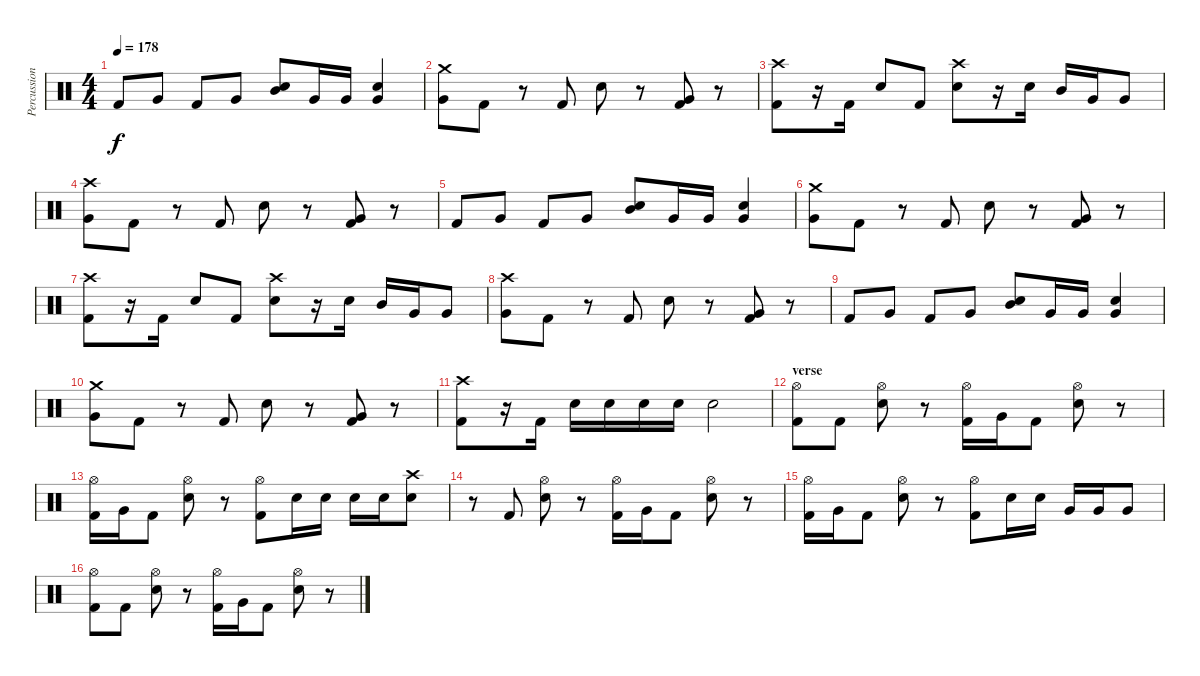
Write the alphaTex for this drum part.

\track ("Percussion" "Percussion") {instrument percussion}
\staff {score}
\articulation defaults
\ts (4 4)
\tempo 178
\clef neutral
\ks c "Kick (hit) 2".8{dy f} "Very Low Tom (hit)".8 "Kick (hit) 2".8 "Very Low Tom (hit)".8
("Electric Snare (hit)" "Mid Tom (hit)").8 "Very Low Tom (hit)".16 "Very Low Tom (hit)".16 ("Electric Snare (hit)" "Very Low Tom (hit)").4 |
("Crash medium (hit)" "Very Low Tom (hit)").8 "Kick (hit) 2".8 r.8 "Kick (hit) 2".8 "Electric Snare (hit)".8 r.8 ("Very Low Tom (hit)" "Kick (hit) 2").8 r.8 |
("Crash high (hit)" "Kick (hit) 2").8 r.16 "Kick (hit) 2".16 "Electric Snare (hit)".8 "Kick (hit) 2".8 ("Crash high (hit)" "Electric Snare (hit)").8 r.16 "Electric Snare (hit)".16 "Mid Tom (hit)".16 "Very Low Tom (hit)".16 "Very Low Tom (hit)".8 |
("Crash high (hit)" "Very Low Tom (hit)").8 "Kick (hit) 2".8 r.8 "Kick (hit) 2".8 "Electric Snare (hit)".8 r.8 ("Very Low Tom (hit)" "Kick (hit) 2").8 r.8 |
"Kick (hit) 2".8 "Very Low Tom (hit)".8 "Kick (hit) 2".8 "Very Low Tom (hit)".8 ("Electric Snare (hit)" "Mid Tom (hit)").8 "Very Low Tom (hit)".16 "Very Low Tom (hit)".16 ("Electric Snare (hit)" "Very Low Tom (hit)").4 |
("Crash medium (hit)" "Very Low Tom (hit)").8 "Kick (hit) 2".8 r.8 "Kick (hit) 2".8 "Electric Snare (hit)".8 r.8 ("Very Low Tom (hit)" "Kick (hit) 2").8 r.8 |
("Crash high (hit)" "Kick (hit) 2").8 r.16 "Kick (hit) 2".16 "Electric Snare (hit)".8 "Kick (hit) 2".8 ("Crash high (hit)" "Electric Snare (hit)").8 r.16 "Electric Snare (hit)".16 "Mid Tom (hit)".16 "Very Low Tom (hit)".16 "Very Low Tom (hit)".8 |
("Crash high (hit)" "Very Low Tom (hit)").8 "Kick (hit) 2".8 r.8 "Kick (hit) 2".8 "Electric Snare (hit)".8 r.8 ("Very Low Tom (hit)" "Kick (hit) 2").8 r.8 |
"Kick (hit) 2".8 "Very Low Tom (hit)".8 "Kick (hit) 2".8 "Very Low Tom (hit)".8 ("Electric Snare (hit)" "Mid Tom (hit)").8 "Very Low Tom (hit)".16 "Very Low Tom (hit)".16 ("Electric Snare (hit)" "Very Low Tom (hit)").4 |
("Crash medium (hit)" "Very Low Tom (hit)").8 "Kick (hit) 2".8 r.8 "Kick (hit) 2".8 "Electric Snare (hit)".8 r.8 ("Very Low Tom (hit)" "Kick (hit) 2").8 r.8 |
("Crash high (hit)" "Kick (hit) 2").8 r.16 "Kick (hit) 2".16 "Electric Snare (hit)".16 "Electric Snare (hit)".16 "Electric Snare (hit)".16 "Electric Snare (hit)".16 "Electric Snare (hit)".2 |
\section ("" "verse")
("Hi-Hat (open)" "Kick (hit) 2").8 "Kick (hit) 2".8 ("Hi-Hat (open)" "Electric Snare (hit)").8 r.8 ("Hi-Hat (open)" "Kick (hit) 2").16 "Very Low Tom (hit)".16 "Kick (hit) 2".8 ("Hi-Hat (open)" "Electric Snare (hit)").8 r.8 |
("Hi-Hat (open)" "Kick (hit) 2").16 "Very Low Tom (hit)".16 "Kick (hit) 2".8 ("Hi-Hat (open)" "Electric Snare (hit)").8 r.8 ("Hi-Hat (open)" "Kick (hit) 2").8 "Electric Snare (hit)".16 "Electric Snare (hit)".16 "Electric Snare (hit)".16 "Electric Snare (hit)".16 ("Crash high (hit)" "Electric Snare (hit)").8 |
r.8 "Kick (hit) 2".8 ("Hi-Hat (open)" "Electric Snare (hit)").8 r.8 ("Hi-Hat (open)" "Kick (hit) 2").16 "Very Low Tom (hit)".16 "Kick (hit) 2".8 ("Hi-Hat (open)" "Electric Snare (hit)").8 r.8 |
("Hi-Hat (open)" "Kick (hit) 2").16 "Very Low Tom (hit)".16 "Kick (hit) 2".8 ("Hi-Hat (open)" "Electric Snare (hit)").8 r.8 ("Hi-Hat (open)" "Kick (hit) 2").8 "Electric Snare (hit)".16 "Electric Snare (hit)".16 "Very Low Tom (hit)".16 "Very Low Tom (hit)".16 "Very Low Tom (hit)".8 |
("Hi-Hat (open)" "Kick (hit) 2").8 "Kick (hit) 2".8 ("Hi-Hat (open)" "Electric Snare (hit)").8 r.8 ("Hi-Hat (open)" "Kick (hit) 2").16 "Very Low Tom (hit)".16 "Kick (hit) 2".8 ("Hi-Hat (open)" "Electric Snare (hit)").8 r.8
